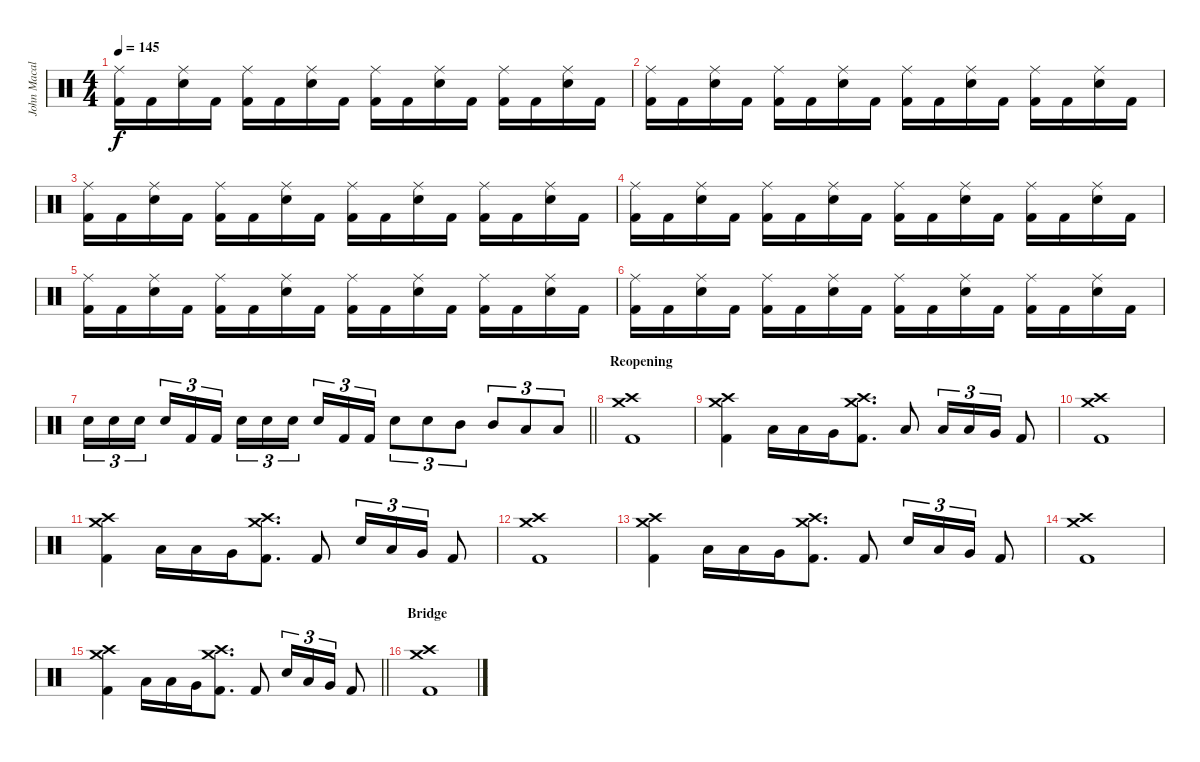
\track ("John Macaluso" "John Macal") {instrument percussion}
\staff {score}
\articulation defaults
\ts (4 4)
\tempo 145
\clef neutral
\ks c
("Ride (middle)" "Kick (hit) 2").16{dy f} "Kick (hit) 2".16 ("Ride (middle)" "Snare (hit) 2").16 "Kick (hit) 2".16 ("Ride (middle)" "Kick (hit) 2").16 "Kick (hit) 2".16 ("Ride (middle)" "Snare (hit) 2").16 "Kick (hit) 2".16 ("Ride (middle)" "Kick (hit) 2").16 "Kick (hit) 2".16 ("Ride (middle)" "Snare (hit) 2").16 "Kick (hit) 2".16 ("Ride (middle)" "Kick (hit) 2").16 "Kick (hit) 2".16 ("Ride (middle)" "Snare (hit) 2").16 "Kick (hit) 2".16 |
("Ride (middle)" "Kick (hit) 2").16 "Kick (hit) 2".16 ("Ride (middle)" "Snare (hit) 2").16 "Kick (hit) 2".16 ("Ride (middle)" "Kick (hit) 2").16 "Kick (hit) 2".16 ("Ride (middle)" "Snare (hit) 2").16 "Kick (hit) 2".16 ("Ride (middle)" "Kick (hit) 2").16 "Kick (hit) 2".16 ("Ride (middle)" "Snare (hit) 2").16 "Kick (hit) 2".16 ("Ride (middle)" "Kick (hit) 2").16 "Kick (hit) 2".16 ("Ride (middle)" "Snare (hit) 2").16 "Kick (hit) 2".16 |
("Ride (middle)" "Kick (hit) 2").16 "Kick (hit) 2".16 ("Ride (middle)" "Snare (hit) 2").16 "Kick (hit) 2".16 ("Ride (middle)" "Kick (hit) 2").16 "Kick (hit) 2".16 ("Ride (middle)" "Snare (hit) 2").16 "Kick (hit) 2".16 ("Ride (middle)" "Kick (hit) 2").16 "Kick (hit) 2".16 ("Ride (middle)" "Snare (hit) 2").16 "Kick (hit) 2".16 ("Ride (middle)" "Kick (hit) 2").16 "Kick (hit) 2".16 ("Ride (middle)" "Snare (hit) 2").16 "Kick (hit) 2".16 |
("Ride (middle)" "Kick (hit) 2").16 "Kick (hit) 2".16 ("Ride (middle)" "Snare (hit) 2").16 "Kick (hit) 2".16 ("Ride (middle)" "Kick (hit) 2").16 "Kick (hit) 2".16 ("Ride (middle)" "Snare (hit) 2").16 "Kick (hit) 2".16 ("Ride (middle)" "Kick (hit) 2").16 "Kick (hit) 2".16 ("Ride (middle)" "Snare (hit) 2").16 "Kick (hit) 2".16 ("Ride (middle)" "Kick (hit) 2").16 "Kick (hit) 2".16 ("Ride (middle)" "Snare (hit) 2").16 "Kick (hit) 2".16 |
("Ride (middle)" "Kick (hit) 2").16 "Kick (hit) 2".16 ("Ride (middle)" "Snare (hit) 2").16 "Kick (hit) 2".16 ("Ride (middle)" "Kick (hit) 2").16 "Kick (hit) 2".16 ("Ride (middle)" "Snare (hit) 2").16 "Kick (hit) 2".16 ("Ride (middle)" "Kick (hit) 2").16 "Kick (hit) 2".16 ("Ride (middle)" "Snare (hit) 2").16 "Kick (hit) 2".16 ("Ride (middle)" "Kick (hit) 2").16 "Kick (hit) 2".16 ("Ride (middle)" "Snare (hit) 2").16 "Kick (hit) 2".16 |
("Ride (middle)" "Kick (hit) 2").16 "Kick (hit) 2".16 ("Ride (middle)" "Snare (hit) 2").16 "Kick (hit) 2".16 ("Ride (middle)" "Kick (hit) 2").16 "Kick (hit) 2".16 ("Ride (middle)" "Snare (hit) 2").16 "Kick (hit) 2".16 ("Ride (middle)" "Kick (hit) 2").16 "Kick (hit) 2".16 ("Ride (middle)" "Snare (hit) 2").16 "Kick (hit) 2".16 ("Ride (middle)" "Kick (hit) 2").16 "Kick (hit) 2".16 ("Ride (middle)" "Snare (hit) 2").16 "Kick (hit) 2".16 |
\barLineRight lightlight "Snare (hit) 2".16{tu (3 2)} "Snare (hit) 2".16{tu (3 2)} "Snare (hit) 2".16{tu (3 2) beam splitsecondary} "Snare (hit) 2".16{tu (3 2)} "Kick (hit) 2".16{tu (3 2)} "Kick (hit) 2".16{tu (3 2)} "Snare (hit) 2".16{tu (3 2)} "Snare (hit) 2".16{tu (3 2)} "Snare (hit) 2".16{tu (3 2) beam splitsecondary} "Snare (hit) 2".16{tu (3 2)} "Kick (hit) 2".16{tu (3 2)} "Kick (hit) 2".16{tu (3 2)} "Snare (hit) 2".8{tu (3 2)} "Snare (hit) 2".8{tu (3 2)} "Mid Tom (hit)".8{tu (3 2)} "Mid Tom (hit)".8{tu (3 2)} "Low Tom (hit)".8{tu (3 2)} "Low Tom (hit)".8{tu (3 2)}
|
\section ("" "Reopening")
("Crash medium (hit)" "Crash high (hit)" "Kick (hit) 2").1 |
("Crash medium (hit)" "Crash high (hit)" "Kick (hit) 2").4 "Low Tom (hit)".16 "Low Tom (hit)".16 "Very Low Tom (hit)".16 ("Crash medium (hit)" "Crash high (hit)" "Kick (hit) 2").8{d} "Low Tom (hit)".8 "Low Tom (hit)".16{tu (3 2)} "Low Tom (hit)".16{tu (3 2)} "Very Low Tom (hit)".16{tu (3 2)} "Kick (hit) 2".8 |
("Crash medium (hit)" "Crash high (hit)" "Kick (hit) 2").1 |
("Crash medium (hit)" "Crash high (hit)" "Kick (hit) 2").4 "Low Tom (hit)".16 "Low Tom (hit)".16 "Very Low Tom (hit)".16 ("Crash medium (hit)" "Crash high (hit)" "Kick (hit) 2").8{d} "Kick (hit) 2".8 "Snare (hit) 2".16{tu (3 2)} "Low Tom (hit)".16{tu (3 2)} "Very Low Tom (hit)".16{tu (3 2)} "Kick (hit) 2".8 |
("Crash medium (hit)" "Crash high (hit)" "Kick (hit) 2").1 |
("Crash medium (hit)" "Crash high (hit)" "Kick (hit) 2").4 "Low Tom (hit)".16 "Low Tom (hit)".16 "Very Low Tom (hit)".16 ("Crash medium (hit)" "Crash high (hit)" "Kick (hit) 2").8{d} "Kick (hit) 2".8 "Snare (hit) 2".16{tu (3 2)} "Low Tom (hit)".16{tu (3 2)} "Very Low Tom (hit)".16{tu (3 2)} "Kick (hit) 2".8 |
("Crash medium (hit)" "Crash high (hit)" "Kick (hit) 2").1 |
\barLineRight lightlight
("Crash medium (hit)" "Crash high (hit)" "Kick (hit) 2").4 "Low Tom (hit)".16 "Low Tom (hit)".16 "Very Low Tom (hit)".16 ("Crash medium (hit)" "Crash high (hit)" "Kick (hit) 2").8{d} "Kick (hit) 2".8 "Snare (hit) 2".16{tu (3 2)} "Low Tom (hit)".16{tu (3 2)} "Very Low Tom (hit)".16{tu (3 2)} "Kick (hit) 2".8 |
\section ("" "Bridge")
("Crash medium (hit)" "Crash high (hit)" "Kick (hit) 2").1
